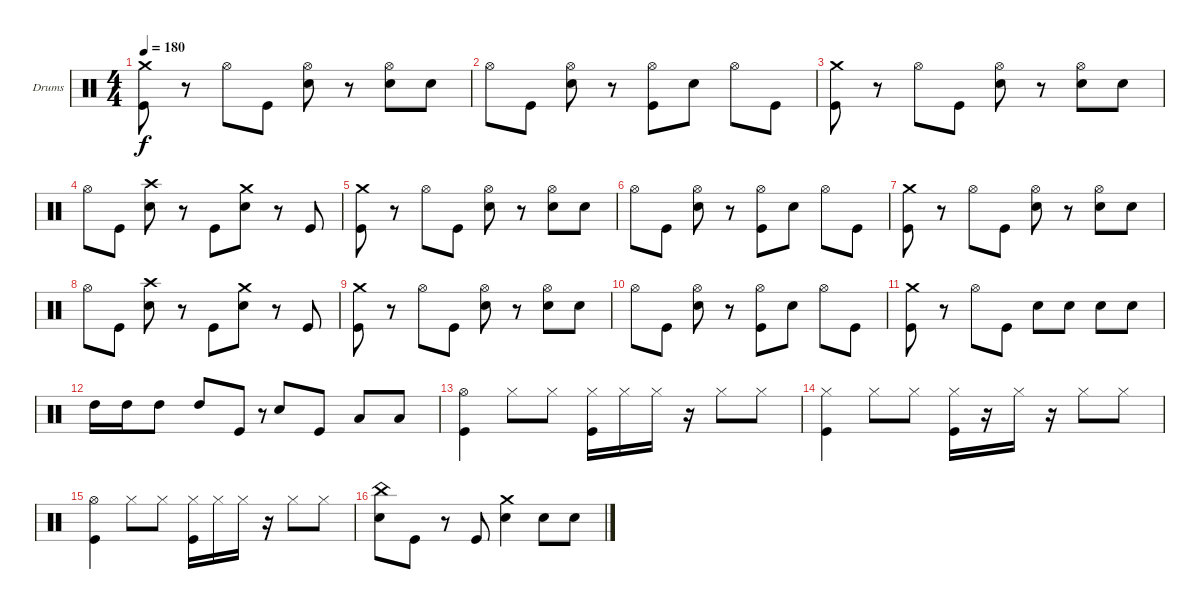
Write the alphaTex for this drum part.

\bracketExtendMode groupsimilarinstruments
\firstSystemTrackNameOrientation horizontal
\otherSystemsTrackNameOrientation horizontal
\track ("Drumkit" "Drums") {instrument percussion}
\staff {score}
\articulation defaults
\ts (4 4)
\tempo 180
\clef neutral
\ks c
("Kick (hit)" "Crash medium (hit)").8{dy f} r.8 "Hi-Hat (open)".8 "Kick (hit)".8 ("Snare (hit) 2" "Hi-Hat (open)").8 r.8 ("Snare (hit) 2" "Hi-Hat (open)").8 "Snare (hit) 2".8 |
"Hi-Hat (open)".8 "Kick (hit)".8 ("Hi-Hat (open)" "Snare (hit) 2").8 r.8 ("Hi-Hat (open)" "Kick (hit)").8 "Snare (hit) 2".8 "Hi-Hat (open)".8 "Kick (hit)".8 |
("Kick (hit)" "Crash medium (hit)").8 r.8 "Hi-Hat (open)".8 "Kick (hit)".8 ("Snare (hit) 2" "Hi-Hat (open)").8 r.8 ("Snare (hit) 2" "Hi-Hat (open)").8 "Snare (hit) 2".8 |
"Hi-Hat (open)".8 "Kick (hit)".8 ("Crash high (hit)" "Snare (hit) 2").8 r.8 "Kick (hit)".8 ("Crash medium (hit)" "Snare (hit) 2").8 r.8 "Kick (hit)".8 |
("Kick (hit)" "Crash medium (hit)").8 r.8 "Hi-Hat (open)".8 "Kick (hit)".8 ("Snare (hit) 2" "Hi-Hat (open)").8 r.8 ("Snare (hit) 2" "Hi-Hat (open)").8 "Snare (hit) 2".8 |
"Hi-Hat (open)".8 "Kick (hit)".8 ("Hi-Hat (open)" "Snare (hit) 2").8 r.8 ("Hi-Hat (open)" "Kick (hit)").8 "Snare (hit) 2".8 "Hi-Hat (open)".8 "Kick (hit)".8 |
("Kick (hit)" "Crash medium (hit)").8 r.8 "Hi-Hat (open)".8 "Kick (hit)".8 ("Snare (hit) 2" "Hi-Hat (open)").8 r.8 ("Snare (hit) 2" "Hi-Hat (open)").8 "Snare (hit) 2".8 |
"Hi-Hat (open)".8 "Kick (hit)".8 ("Crash high (hit)" "Snare (hit) 2").8 r.8 "Kick (hit)".8 ("Crash medium (hit)" "Snare (hit) 2").8 r.8 "Kick (hit)".8 |
("Kick (hit)" "Crash medium (hit)").8 r.8 "Hi-Hat (open)".8 "Kick (hit)".8 ("Snare (hit) 2" "Hi-Hat (open)").8 r.8 ("Snare (hit) 2" "Hi-Hat (open)").8 "Snare (hit) 2".8 |
"Hi-Hat (open)".8 "Kick (hit)".8 ("Hi-Hat (open)" "Snare (hit) 2").8 r.8 ("Hi-Hat (open)" "Kick (hit)").8 "Snare (hit) 2".8 "Hi-Hat (open)".8 "Kick (hit)".8 |
("Kick (hit)" "Crash medium (hit)").8 r.8 "Hi-Hat (open)".8 "Kick (hit)".8 "Snare (hit) 2".8 "Snare (hit) 2".8 "Snare (hit) 2".8 "Snare (hit) 2".8 |
"High Tom (hit)".16 "High Tom (hit)".16 "High Tom (hit)".8 "High Tom (hit)".8 "Kick (hit)".8 r.8{gr} "Snare (hit) 2".8 "Kick (hit)".8 "Low Tom (hit)".8 "Low Tom (hit)".8 |
("Hi-Hat (open)" "Kick (hit)").4 "Hi-Hat (closed)".8 "Hi-Hat (closed)".8 ("Hi-Hat (closed)" "Kick (hit)").16 "Hi-Hat (closed)".16 "Hi-Hat (closed)".16 r.16 "Hi-Hat (closed)".8 "Hi-Hat (closed)".8 |
("Hi-Hat (closed)" "Kick (hit)").4 "Hi-Hat (closed)".8 "Hi-Hat (closed)".8 ("Hi-Hat (closed)" "Kick (hit)").16 r.16 "Hi-Hat (closed)".16 r.16 "Hi-Hat (closed)".8 "Hi-Hat (closed)".8 |
("Hi-Hat (open)" "Kick (hit)").4 "Hi-Hat (closed)".8 "Hi-Hat (closed)".8 ("Hi-Hat (closed)" "Kick (hit)").16 "Hi-Hat (closed)".16 "Hi-Hat (closed)".16 r.16 "Hi-Hat (closed)".8 "Hi-Hat (closed)".8 |
("China (hit)" "Snare (hit) 2").8 "Kick (hit)".8 r.8 "Kick (hit)".8 ("Crash medium (hit)" "Snare (hit) 2").4 "Snare (hit) 2".8 "Snare (hit) 2".8
